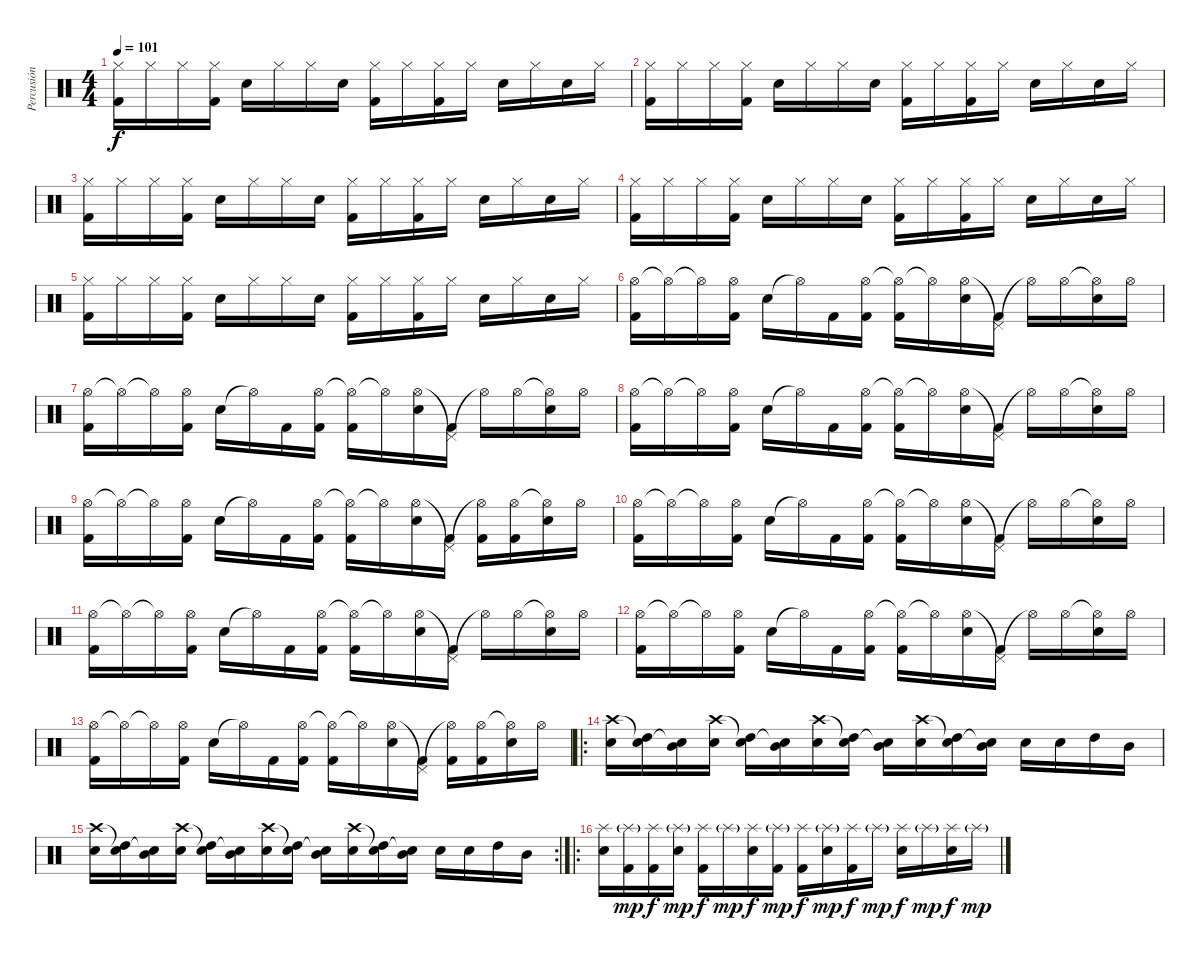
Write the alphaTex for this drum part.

\track ("Percusión" "Percusión") {instrument percussion}
\staff {score}
\articulation defaults
\ts (4 4)
\tempo 101
\clef neutral
\ks c
("Hi-Hat (closed)" "Kick (hit) 2").16{dy f} "Hi-Hat (closed)".16 "Hi-Hat (closed)".16 ("Hi-Hat (closed)" "Kick (hit) 2").16 "Snare (hit) 2".16 "Hi-Hat (closed)".16 "Hi-Hat (closed)".16 "Snare (hit) 2".16 ("Hi-Hat (closed)" "Kick (hit) 2").16 "Hi-Hat (closed)".16 ("Hi-Hat (closed)" "Kick (hit) 2").16 "Hi-Hat (closed)".16 "Snare (hit) 2".16 "Hi-Hat (closed)".16 "Snare (hit) 2".16 "Hi-Hat (closed)".16 |
("Hi-Hat (closed)" "Kick (hit) 2").16 "Hi-Hat (closed)".16 "Hi-Hat (closed)".16 ("Hi-Hat (closed)" "Kick (hit) 2").16 "Snare (hit) 2".16 "Hi-Hat (closed)".16 "Hi-Hat (closed)".16 "Snare (hit) 2".16 ("Hi-Hat (closed)" "Kick (hit) 2").16 "Hi-Hat (closed)".16 ("Hi-Hat (closed)" "Kick (hit) 2").16 "Hi-Hat (closed)".16 "Snare (hit) 2".16 "Hi-Hat (closed)".16 "Snare (hit) 2".16 "Hi-Hat (closed)".16 |
("Hi-Hat (closed)" "Kick (hit) 2").16 "Hi-Hat (closed)".16 "Hi-Hat (closed)".16 ("Hi-Hat (closed)" "Kick (hit) 2").16 "Snare (hit) 2".16 "Hi-Hat (closed)".16 "Hi-Hat (closed)".16 "Snare (hit) 2".16 ("Hi-Hat (closed)" "Kick (hit) 2").16 "Hi-Hat (closed)".16 ("Hi-Hat (closed)" "Kick (hit) 2").16 "Hi-Hat (closed)".16 "Snare (hit) 2".16 "Hi-Hat (closed)".16 "Snare (hit) 2".16 "Hi-Hat (closed)".16 |
("Hi-Hat (closed)" "Kick (hit) 2").16 "Hi-Hat (closed)".16 "Hi-Hat (closed)".16 ("Hi-Hat (closed)" "Kick (hit) 2").16 "Snare (hit) 2".16 "Hi-Hat (closed)".16 "Hi-Hat (closed)".16 "Snare (hit) 2".16 ("Hi-Hat (closed)" "Kick (hit) 2").16 "Hi-Hat (closed)".16 ("Hi-Hat (closed)" "Kick (hit) 2").16 "Hi-Hat (closed)".16 "Snare (hit) 2".16 "Hi-Hat (closed)".16 "Snare (hit) 2".16 "Hi-Hat (closed)".16 |
("Hi-Hat (closed)" "Kick (hit) 2").16 "Hi-Hat (closed)".16 "Hi-Hat (closed)".16 ("Hi-Hat (closed)" "Kick (hit) 2").16 "Snare (hit) 2".16 "Hi-Hat (closed)".16 "Hi-Hat (closed)".16 "Snare (hit) 2".16 ("Hi-Hat (closed)" "Kick (hit) 2").16 "Hi-Hat (closed)".16 ("Hi-Hat (closed)" "Kick (hit) 2").16 "Hi-Hat (closed)".16 "Snare (hit) 2".16 "Hi-Hat (closed)".16 "Snare (hit) 2".16 "Hi-Hat (closed)".16 |
("Hi-Hat (open)" "Kick (hit) 2").16 "Hi-Hat (open)"{t}.16 "Hi-Hat (open)"{t}.16 ("Hi-Hat (open)" "Kick (hit) 2").16 "Snare (hit) 2".16 "Hi-Hat (open)"{t}.16 "Kick (hit) 2".16 ("Hi-Hat (open)" "Kick (hit) 2").16 ("Hi-Hat (open)"{t} "Kick (hit) 2").16 "Hi-Hat (open)"{t}.16 ("Hi-Hat (open)" "Snare (hit) 2").16 ("Pedal Hi-Hat (hit)"{t} "Kick (hit) 2").16 "Hi-Hat (open)"{t}.16 "Hi-Hat (open)".16 ("Hi-Hat (open)"{t} "Snare (hit) 2").16 "Hi-Hat (open)".16 |
("Hi-Hat (open)" "Kick (hit) 2").16 "Hi-Hat (open)"{t}.16 "Hi-Hat (open)"{t}.16 ("Hi-Hat (open)" "Kick (hit) 2").16 "Snare (hit) 2".16 "Hi-Hat (open)"{t}.16 "Kick (hit) 2".16 ("Hi-Hat (open)" "Kick (hit) 2").16 ("Hi-Hat (open)"{t} "Kick (hit) 2").16 "Hi-Hat (open)"{t}.16 ("Hi-Hat (open)" "Snare (hit) 2").16 ("Pedal Hi-Hat (hit)"{t} "Kick (hit) 2").16 "Hi-Hat (open)"{t}.16 "Hi-Hat (open)".16 ("Hi-Hat (open)"{t} "Snare (hit) 2").16 "Hi-Hat (open)".16 |
("Hi-Hat (open)" "Kick (hit) 2").16 "Hi-Hat (open)"{t}.16 "Hi-Hat (open)"{t}.16 ("Hi-Hat (open)" "Kick (hit) 2").16 "Snare (hit) 2".16 "Hi-Hat (open)"{t}.16 "Kick (hit) 2".16 ("Hi-Hat (open)" "Kick (hit) 2").16 ("Hi-Hat (open)"{t} "Kick (hit) 2").16 "Hi-Hat (open)"{t}.16 ("Hi-Hat (open)" "Snare (hit) 2").16 ("Pedal Hi-Hat (hit)"{t} "Kick (hit) 2").16 "Hi-Hat (open)"{t}.16 "Hi-Hat (open)".16 ("Hi-Hat (open)"{t} "Snare (hit) 2").16 "Hi-Hat (open)".16 |
("Hi-Hat (open)" "Kick (hit) 2").16 "Hi-Hat (open)"{t}.16 "Hi-Hat (open)"{t}.16 ("Hi-Hat (open)" "Kick (hit) 2").16 "Snare (hit) 2".16 "Hi-Hat (open)"{t}.16 "Kick (hit) 2".16 ("Hi-Hat (open)" "Kick (hit) 2").16 ("Hi-Hat (open)"{t} "Kick (hit) 2").16 "Hi-Hat (open)"{t}.16 ("Hi-Hat (open)" "Snare (hit) 2").16 ("Pedal Hi-Hat (hit)"{t} "Kick (hit) 2").16 ("Hi-Hat (open)"{t} "Kick (hit) 2").16 ("Hi-Hat (open)" "Kick (hit) 2").16 ("Hi-Hat (open)"{t} "Snare (hit) 2").16 "Hi-Hat (open)".16 |
("Hi-Hat (open)" "Kick (hit) 2").16 "Hi-Hat (open)"{t}.16 "Hi-Hat (open)"{t}.16 ("Hi-Hat (open)" "Kick (hit) 2").16 "Snare (hit) 2".16 "Hi-Hat (open)"{t}.16 "Kick (hit) 2".16 ("Hi-Hat (open)" "Kick (hit) 2").16 ("Hi-Hat (open)"{t} "Kick (hit) 2").16 "Hi-Hat (open)"{t}.16 ("Hi-Hat (open)" "Snare (hit) 2").16 ("Pedal Hi-Hat (hit)"{t} "Kick (hit) 2").16 "Hi-Hat (open)"{t}.16 "Hi-Hat (open)".16 ("Hi-Hat (open)"{t} "Snare (hit) 2").16 "Hi-Hat (open)".16 |
("Hi-Hat (open)" "Kick (hit) 2").16 "Hi-Hat (open)"{t}.16 "Hi-Hat (open)"{t}.16 ("Hi-Hat (open)" "Kick (hit) 2").16 "Snare (hit) 2".16 "Hi-Hat (open)"{t}.16 "Kick (hit) 2".16 ("Hi-Hat (open)" "Kick (hit) 2").16 ("Hi-Hat (open)"{t} "Kick (hit) 2").16 "Hi-Hat (open)"{t}.16 ("Hi-Hat (open)" "Snare (hit) 2").16 ("Pedal Hi-Hat (hit)"{t} "Kick (hit) 2").16 "Hi-Hat (open)"{t}.16 "Hi-Hat (open)".16 ("Hi-Hat (open)"{t} "Snare (hit) 2").16 "Hi-Hat (open)".16 |
("Hi-Hat (open)" "Kick (hit) 2").16 "Hi-Hat (open)"{t}.16 "Hi-Hat (open)"{t}.16 ("Hi-Hat (open)" "Kick (hit) 2").16 "Snare (hit) 2".16 "Hi-Hat (open)"{t}.16 "Kick (hit) 2".16 ("Hi-Hat (open)" "Kick (hit) 2").16 ("Hi-Hat (open)"{t} "Kick (hit) 2").16 "Hi-Hat (open)"{t}.16 ("Hi-Hat (open)" "Snare (hit) 2").16 ("Pedal Hi-Hat (hit)"{t} "Kick (hit) 2").16 "Hi-Hat (open)"{t}.16 "Hi-Hat (open)".16 ("Hi-Hat (open)"{t} "Snare (hit) 2").16 "Hi-Hat (open)".16 |
("Hi-Hat (open)" "Kick (hit) 2").16 "Hi-Hat (open)"{t}.16 "Hi-Hat (open)"{t}.16 ("Hi-Hat (open)" "Kick (hit) 2").16 "Snare (hit) 2".16 "Hi-Hat (open)"{t}.16 "Kick (hit) 2".16 ("Hi-Hat (open)" "Kick (hit) 2").16 ("Hi-Hat (open)"{t} "Kick (hit) 2").16 "Hi-Hat (open)"{t}.16 ("Hi-Hat (open)" "Snare (hit) 2").16 ("Pedal Hi-Hat (hit)"{t} "Kick (hit) 2").16 ("Hi-Hat (open)"{t} "Kick (hit) 2").16 ("Hi-Hat (open)" "Kick (hit) 2").16 ("Hi-Hat (open)"{t} "Snare (hit) 2").16 "Hi-Hat (open)".16 |
\ro
("Crash high (hit)" "Snare (hit) 2").16 ("Snare (hit)"{t} "High Tom (hit)").16 ("Snare (hit)"{t} "Mid Tom (hit)").16 ("Crash high (hit)" "Snare (hit) 2").16 ("Snare (hit)"{t} "High Tom (hit)").16 ("Snare (hit)"{t} "Mid Tom (hit)").16 ("Crash high (hit)" "Snare (hit) 2").16 ("Snare (hit)"{t} "High Tom (hit)").16 ("Snare (hit)"{t} "Mid Tom (hit)").16 ("Crash high (hit)" "Snare (hit) 2").16 ("Snare (hit)"{t} "High Tom (hit)").16 ("Snare (hit)"{t} "Mid Tom (hit)").16 "Snare (hit) 2".16 "Snare (hit) 2".16 "High Tom (hit)".16 "Mid Tom (hit)".16 |
\rc 2
("Crash high (hit)" "Snare (hit) 2").16 ("Snare (hit)"{t} "High Tom (hit)").16 ("Snare (hit)"{t} "Mid Tom (hit)").16 ("Crash high (hit)" "Snare (hit) 2").16 ("Snare (hit)"{t} "High Tom (hit)").16 ("Snare (hit)"{t} "Mid Tom (hit)").16 ("Crash high (hit)" "Snare (hit) 2").16 ("Snare (hit)"{t} "High Tom (hit)").16 ("Snare (hit)"{t} "Mid Tom (hit)").16 ("Crash high (hit)" "Snare (hit) 2").16 ("Snare (hit)"{t} "High Tom (hit)").16 ("Snare (hit)"{t} "Mid Tom (hit)").16 "Snare (hit) 2".16 "Snare (hit) 2".16 "High Tom (hit)".16 "Mid Tom (hit)".16 |
\ro
("Splash (hit)" "Snare (hit) 2").16 ("Splash (hit)"{g} "Kick (hit) 2").16{dy mp} ("Splash (hit)" "Kick (hit) 2").16{dy f} ("Splash (hit)"{g} "Snare (hit) 2").16{dy mp} ("Splash (hit)" "Kick (hit) 2").16{dy f} "Splash (hit)"{g}.16{dy mp} ("Splash (hit)" "Snare (hit) 2").16{dy f} ("Splash (hit)"{g} "Kick (hit) 2").16{dy mp} ("Splash (hit)" "Kick (hit) 2").16{dy f} ("Splash (hit)"{g} "Snare (hit) 2").16{dy mp} ("Splash (hit)" "Kick (hit) 2").16{dy f} "Splash (hit)"{g}.16{dy mp} ("Splash (hit)" "Snare (hit) 2").16{dy f} "Splash (hit)"{g}.16{dy mp} ("Splash (hit)" "Snare (hit) 2").16{dy f} "Splash (hit)"{g}.16{dy mp}
